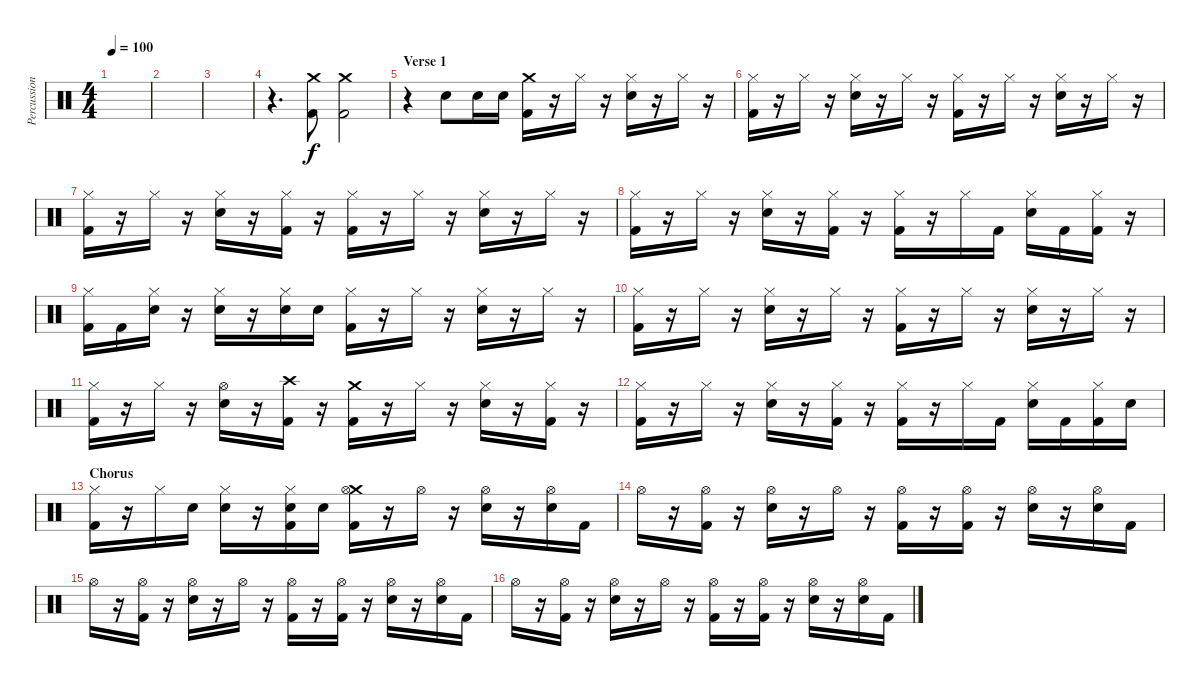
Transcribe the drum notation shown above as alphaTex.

\track ("Percussion" "Percussion") {instrument percussion}
\staff {score}
\articulation defaults
\ts (4 4)
\tempo 100
\clef neutral
\ks c
|
|
|
r.4{d} ("Crash medium (hit)" "Kick (hit) 2").8 ("Crash medium (hit)" "Kick (hit) 2").2 |
\section ("" "Verse 1")
r.4 "Snare (hit) 2".8 "Snare (hit) 2".16 "Snare (hit) 2".16 ("Crash medium (hit)" "Kick (hit) 2").16 r.16 "Hi-Hat (closed)".16 r.16 ("Hi-Hat (closed)" "Snare (hit) 2").16 r.16 "Hi-Hat (closed)".16 r.16 |
("Hi-Hat (closed)" "Kick (hit) 2").16 r.16 "Hi-Hat (closed)".16 r.16 ("Hi-Hat (closed)" "Snare (hit) 2").16 r.16 "Hi-Hat (closed)".16 r.16 ("Hi-Hat (closed)" "Kick (hit) 2").16 r.16 "Hi-Hat (closed)".16 r.16 ("Hi-Hat (closed)" "Snare (hit) 2").16 r.16 "Hi-Hat (closed)".16 r.16 |
("Hi-Hat (closed)" "Kick (hit) 2").16 r.16 "Hi-Hat (closed)".16 r.16 ("Hi-Hat (closed)" "Snare (hit) 2").16 r.16 ("Hi-Hat (closed)" "Kick (hit) 2").16 r.16 ("Hi-Hat (closed)" "Kick (hit) 2").16 r.16 "Hi-Hat (closed)".16 r.16 ("Hi-Hat (closed)" "Snare (hit) 2").16 r.16 "Hi-Hat (closed)".16 r.16 |
("Hi-Hat (closed)" "Kick (hit) 2").16 r.16 "Hi-Hat (closed)".16 r.16 ("Hi-Hat (closed)" "Snare (hit) 2").16 r.16 ("Hi-Hat (closed)" "Kick (hit) 2").16 r.16 ("Hi-Hat (closed)" "Kick (hit) 2").16 r.16 "Hi-Hat (closed)".16 "Kick (hit) 2".16 ("Hi-Hat (closed)" "Snare (hit) 2").16 "Kick (hit) 2".16 ("Hi-Hat (closed)" "Kick (hit) 2").16 r.16 |
("Hi-Hat (closed)" "Kick (hit) 2").16 "Kick (hit) 2".16 ("Hi-Hat (closed)" "Snare (hit) 2").16 r.16 ("Hi-Hat (closed)" "Snare (hit) 2").16 r.16 ("Hi-Hat (closed)" "Snare (hit) 2").16 "Snare (hit) 2".16 ("Hi-Hat (closed)" "Kick (hit) 2").16 r.16 "Hi-Hat (closed)".16 r.16 ("Hi-Hat (closed)" "Snare (hit) 2").16 r.16 "Hi-Hat (closed)".16 r.16 |
("Hi-Hat (closed)" "Kick (hit) 2").16 r.16 "Hi-Hat (closed)".16 r.16 ("Hi-Hat (closed)" "Snare (hit) 2").16 r.16 "Hi-Hat (closed)".16 r.16 ("Hi-Hat (closed)" "Kick (hit) 2").16 r.16 "Hi-Hat (closed)".16 r.16 ("Hi-Hat (closed)" "Snare (hit) 2").16 r.16 "Hi-Hat (closed)".16 r.16 |
("Hi-Hat (closed)" "Kick (hit) 2").16 r.16 "Hi-Hat (closed)".16 r.16 ("Hi-Hat (open)" "Snare (hit) 2").16 r.16 ("Crash high (hit)" "Kick (hit) 2").16 r.16 ("Crash medium (hit)" "Kick (hit) 2").16 r.16 "Hi-Hat (closed)".16 r.16 ("Hi-Hat (closed)" "Snare (hit) 2").16 r.16 ("Hi-Hat (closed)" "Kick (hit) 2").16 r.16 |
("Hi-Hat (closed)" "Kick (hit) 2").16 r.16 "Hi-Hat (closed)".16 r.16 ("Hi-Hat (closed)" "Snare (hit) 2").16 r.16 ("Hi-Hat (closed)" "Kick (hit) 2").16 r.16 ("Hi-Hat (closed)" "Kick (hit) 2").16 r.16 "Hi-Hat (closed)".16 "Kick (hit) 2".16 ("Hi-Hat (closed)" "Snare (hit) 2").16 "Kick (hit) 2".16 ("Hi-Hat (closed)" "Kick (hit) 2").16 "Snare (hit) 2".16 |
\section ("" "Chorus")
("Hi-Hat (closed)" "Kick (hit) 2").16 r.16 "Hi-Hat (closed)".16 "Snare (hit) 2".16 ("Hi-Hat (closed)" "Snare (hit) 2").16 r.16 ("Hi-Hat (closed)" "Snare (hit) 2" "Kick (hit) 2").16 "Snare (hit) 2".16 ("Crash medium (hit)" "Hi-Hat (open)" "Kick (hit) 2").16 r.16 "Hi-Hat (open)".16 r.16 ("Hi-Hat (open)" "Snare (hit) 2").16 r.16 ("Hi-Hat (open)" "Snare (hit) 2").16 "Kick (hit) 2".16 |
"Hi-Hat (open)".16 r.16 ("Hi-Hat (open)" "Kick (hit) 2").16 r.16 ("Hi-Hat (open)" "Snare (hit) 2").16 r.16 "Hi-Hat (open)".16 r.16 ("Hi-Hat (open)" "Kick (hit) 2").16 r.16 ("Hi-Hat (open)" "Kick (hit) 2").16 r.16 ("Hi-Hat (open)" "Snare (hit) 2").16 r.16 ("Hi-Hat (open)" "Snare (hit) 2").16 "Kick (hit) 2".16 |
"Hi-Hat (open)".16 r.16 ("Hi-Hat (open)" "Kick (hit) 2").16 r.16 ("Hi-Hat (open)" "Snare (hit) 2").16 r.16 "Hi-Hat (open)".16 r.16 ("Hi-Hat (open)" "Kick (hit) 2").16 r.16 ("Hi-Hat (open)" "Kick (hit) 2").16 r.16 ("Hi-Hat (open)" "Snare (hit) 2").16 r.16 ("Hi-Hat (open)" "Snare (hit) 2").16 "Kick (hit) 2".16 |
"Hi-Hat (open)".16 r.16 ("Hi-Hat (open)" "Kick (hit) 2").16 r.16 ("Hi-Hat (open)" "Snare (hit) 2").16 r.16 "Hi-Hat (open)".16 r.16 ("Hi-Hat (open)" "Kick (hit) 2").16 r.16 ("Hi-Hat (open)" "Kick (hit) 2").16 r.16 ("Hi-Hat (open)" "Snare (hit) 2").16 r.16 ("Hi-Hat (open)" "Snare (hit) 2").16 "Kick (hit) 2".16
